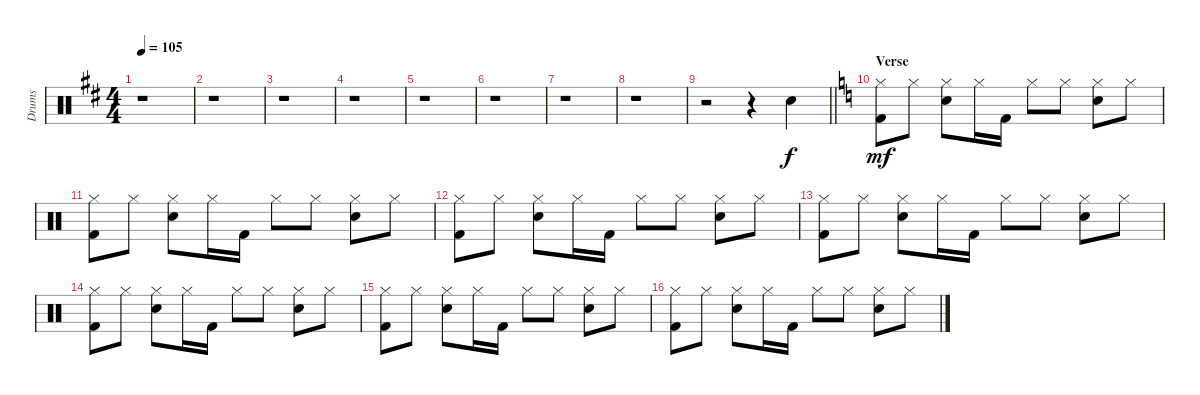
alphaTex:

\track ("Drums" "Drums") {instrument percussion}
\staff {score}
\articulation defaults
\ts (4 4)
\tempo 105
\clef neutral
\ks bminor
r.1{dy f} |
r.1 |
r.1 |
r.1 |
r.1 |
r.1 |
r.1 |
r.1 |
\barLineRight lightlight
r.2 r.4 "Electric Snare (hit)".4 |
\section ("" "Verse")
\ks aminor
("Hi-Hat (closed)" "Kick (hit) 2").8{dy mf} "Hi-Hat (closed)".8 ("Hi-Hat (closed)" "Electric Snare (hit)").8 "Hi-Hat (closed)".16 "Kick (hit) 2".16 "Hi-Hat (closed)".8 "Hi-Hat (closed)".8 ("Hi-Hat (closed)" "Electric Snare (hit)").8 "Hi-Hat (closed)".8 |
("Hi-Hat (closed)" "Kick (hit) 2").8 "Hi-Hat (closed)".8 ("Hi-Hat (closed)" "Electric Snare (hit)").8 "Hi-Hat (closed)".16 "Kick (hit) 2".16 "Hi-Hat (closed)".8 "Hi-Hat (closed)".8 ("Hi-Hat (closed)" "Electric Snare (hit)").8 "Hi-Hat (closed)".8 |
("Hi-Hat (closed)" "Kick (hit) 2").8 "Hi-Hat (closed)".8 ("Hi-Hat (closed)" "Electric Snare (hit)").8 "Hi-Hat (closed)".16 "Kick (hit) 2".16 "Hi-Hat (closed)".8 "Hi-Hat (closed)".8 ("Hi-Hat (closed)" "Electric Snare (hit)").8 "Hi-Hat (closed)".8 |
("Hi-Hat (closed)" "Kick (hit) 2").8 "Hi-Hat (closed)".8 ("Hi-Hat (closed)" "Electric Snare (hit)").8 "Hi-Hat (closed)".16 "Kick (hit) 2".16 "Hi-Hat (closed)".8 "Hi-Hat (closed)".8 ("Hi-Hat (closed)" "Electric Snare (hit)").8 "Hi-Hat (closed)".8 |
("Hi-Hat (closed)" "Kick (hit) 2").8 "Hi-Hat (closed)".8 ("Hi-Hat (closed)" "Electric Snare (hit)").8 "Hi-Hat (closed)".16 "Kick (hit) 2".16 "Hi-Hat (closed)".8 "Hi-Hat (closed)".8 ("Hi-Hat (closed)" "Electric Snare (hit)").8 "Hi-Hat (closed)".8 |
("Hi-Hat (closed)" "Kick (hit) 2").8 "Hi-Hat (closed)".8 ("Hi-Hat (closed)" "Electric Snare (hit)").8 "Hi-Hat (closed)".16 "Kick (hit) 2".16 "Hi-Hat (closed)".8 "Hi-Hat (closed)".8 ("Hi-Hat (closed)" "Electric Snare (hit)").8 "Hi-Hat (closed)".8 |
("Hi-Hat (closed)" "Kick (hit) 2").8 "Hi-Hat (closed)".8 ("Hi-Hat (closed)" "Electric Snare (hit)").8 "Hi-Hat (closed)".16 "Kick (hit) 2".16 "Hi-Hat (closed)".8 "Hi-Hat (closed)".8 ("Hi-Hat (closed)" "Electric Snare (hit)").8 "Hi-Hat (closed)".8
